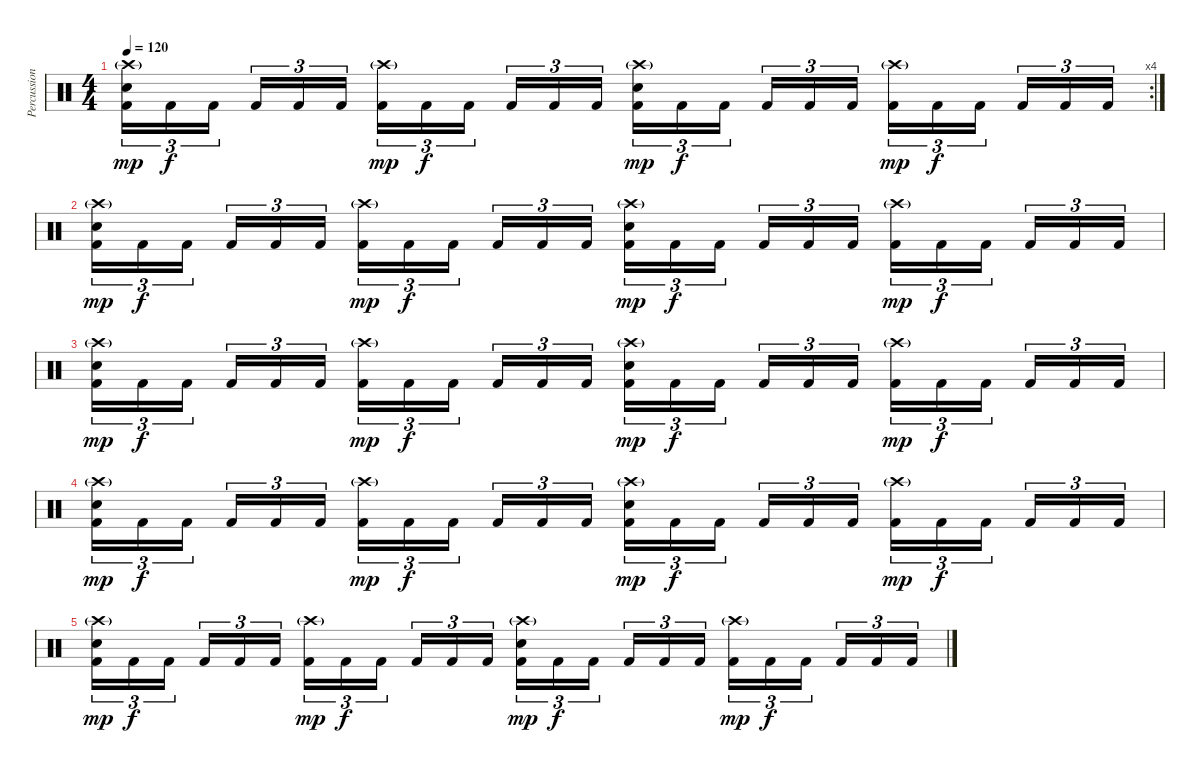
\track ("Percussion" "Percussion") {instrument percussion}
\staff {score}
\articulation defaults
\rc 4
\ts (4 4)
\tempo 120
\clef neutral
\ks c
("Crash high (hit)"{g} "Snare (hit) 2" "Kick (hit) 2").16{tu (3 2) dy mp} "Kick (hit) 2".16{tu (3 2) dy f} "Kick (hit) 2".16{tu (3 2) beam splitsecondary} "Kick (hit) 2".16{tu (3 2)} "Kick (hit) 2".16{tu (3 2)} "Kick (hit) 2".16{tu (3 2)} ("Crash high (hit)"{g} "Kick (hit) 2").16{tu (3 2) dy mp} "Kick (hit) 2".16{tu (3 2) dy f} "Kick (hit) 2".16{tu (3 2) beam splitsecondary} "Kick (hit) 2".16{tu (3 2)} "Kick (hit) 2".16{tu (3 2)} "Kick (hit) 2".16{tu (3 2)} ("Crash high (hit)"{g} "Snare (hit) 2" "Kick (hit) 2").16{tu (3 2) dy mp} "Kick (hit) 2".16{tu (3 2) dy f} "Kick (hit) 2".16{tu (3 2) beam splitsecondary} "Kick (hit) 2".16{tu (3 2)} "Kick (hit) 2".16{tu (3 2)} "Kick (hit) 2".16{tu (3 2)} ("Crash high (hit)"{g} "Kick (hit) 2").16{tu (3 2) dy mp} "Kick (hit) 2".16{tu (3 2) dy f} "Kick (hit) 2".16{tu (3 2) beam splitsecondary} "Kick (hit) 2".16{tu (3 2)} "Kick (hit) 2".16{tu (3 2)} "Kick (hit) 2".16{tu (3 2)} |
("Crash high (hit)"{g} "Snare (hit) 2" "Kick (hit) 2").16{tu (3 2) dy mp volume 0} "Kick (hit) 2".16{tu (3 2) dy f} "Kick (hit) 2".16{tu (3 2) beam splitsecondary} "Kick (hit) 2".16{tu (3 2)} "Kick (hit) 2".16{tu (3 2)} "Kick (hit) 2".16{tu (3 2)} ("Crash high (hit)"{g} "Kick (hit) 2").16{tu (3 2) dy mp} "Kick (hit) 2".16{tu (3 2) dy f} "Kick (hit) 2".16{tu (3 2) beam splitsecondary} "Kick (hit) 2".16{tu (3 2)} "Kick (hit) 2".16{tu (3 2)} "Kick (hit) 2".16{tu (3 2)} ("Crash high (hit)"{g} "Snare (hit) 2" "Kick (hit) 2").16{tu (3 2) dy mp} "Kick (hit) 2".16{tu (3 2) dy f} "Kick (hit) 2".16{tu (3 2) beam splitsecondary} "Kick (hit) 2".16{tu (3 2)} "Kick (hit) 2".16{tu (3 2)} "Kick (hit) 2".16{tu (3 2)} ("Crash high (hit)"{g} "Kick (hit) 2").16{tu (3 2) dy mp} "Kick (hit) 2".16{tu (3 2) dy f} "Kick (hit) 2".16{tu (3 2) beam splitsecondary} "Kick (hit) 2".16{tu (3 2)} "Kick (hit) 2".16{tu (3 2)} "Kick (hit) 2".16{tu (3 2)} |
("Crash high (hit)"{g} "Snare (hit) 2" "Kick (hit) 2").16{tu (3 2) dy mp} "Kick (hit) 2".16{tu (3 2) dy f} "Kick (hit) 2".16{tu (3 2) beam splitsecondary} "Kick (hit) 2".16{tu (3 2)} "Kick (hit) 2".16{tu (3 2)} "Kick (hit) 2".16{tu (3 2)} ("Crash high (hit)"{g} "Kick (hit) 2").16{tu (3 2) dy mp} "Kick (hit) 2".16{tu (3 2) dy f} "Kick (hit) 2".16{tu (3 2) beam splitsecondary} "Kick (hit) 2".16{tu (3 2)} "Kick (hit) 2".16{tu (3 2)} "Kick (hit) 2".16{tu (3 2)} ("Crash high (hit)"{g} "Snare (hit) 2" "Kick (hit) 2").16{tu (3 2) dy mp} "Kick (hit) 2".16{tu (3 2) dy f} "Kick (hit) 2".16{tu (3 2) beam splitsecondary} "Kick (hit) 2".16{tu (3 2)} "Kick (hit) 2".16{tu (3 2)} "Kick (hit) 2".16{tu (3 2)} ("Crash high (hit)"{g} "Kick (hit) 2").16{tu (3 2) dy mp} "Kick (hit) 2".16{tu (3 2) dy f} "Kick (hit) 2".16{tu (3 2) beam splitsecondary} "Kick (hit) 2".16{tu (3 2)} "Kick (hit) 2".16{tu (3 2)} "Kick (hit) 2".16{tu (3 2)} |
("Crash high (hit)"{g} "Snare (hit) 2" "Kick (hit) 2").16{tu (3 2) dy mp} "Kick (hit) 2".16{tu (3 2) dy f} "Kick (hit) 2".16{tu (3 2) beam splitsecondary} "Kick (hit) 2".16{tu (3 2)} "Kick (hit) 2".16{tu (3 2)} "Kick (hit) 2".16{tu (3 2)} ("Crash high (hit)"{g} "Kick (hit) 2").16{tu (3 2) dy mp} "Kick (hit) 2".16{tu (3 2) dy f} "Kick (hit) 2".16{tu (3 2) beam splitsecondary} "Kick (hit) 2".16{tu (3 2)} "Kick (hit) 2".16{tu (3 2)} "Kick (hit) 2".16{tu (3 2)} ("Crash high (hit)"{g} "Snare (hit) 2" "Kick (hit) 2").16{tu (3 2) dy mp} "Kick (hit) 2".16{tu (3 2) dy f} "Kick (hit) 2".16{tu (3 2) beam splitsecondary} "Kick (hit) 2".16{tu (3 2)} "Kick (hit) 2".16{tu (3 2)} "Kick (hit) 2".16{tu (3 2)} ("Crash high (hit)"{g} "Kick (hit) 2").16{tu (3 2) dy mp} "Kick (hit) 2".16{tu (3 2) dy f} "Kick (hit) 2".16{tu (3 2) beam splitsecondary} "Kick (hit) 2".16{tu (3 2)} "Kick (hit) 2".16{tu (3 2)} "Kick (hit) 2".16{tu (3 2)} |
("Crash high (hit)"{g} "Snare (hit) 2" "Kick (hit) 2").16{tu (3 2) dy mp} "Kick (hit) 2".16{tu (3 2) dy f} "Kick (hit) 2".16{tu (3 2) beam splitsecondary} "Kick (hit) 2".16{tu (3 2)} "Kick (hit) 2".16{tu (3 2)} "Kick (hit) 2".16{tu (3 2)} ("Crash high (hit)"{g} "Kick (hit) 2").16{tu (3 2) dy mp} "Kick (hit) 2".16{tu (3 2) dy f} "Kick (hit) 2".16{tu (3 2) beam splitsecondary} "Kick (hit) 2".16{tu (3 2)} "Kick (hit) 2".16{tu (3 2)} "Kick (hit) 2".16{tu (3 2)} ("Crash high (hit)"{g} "Snare (hit) 2" "Kick (hit) 2").16{tu (3 2) dy mp} "Kick (hit) 2".16{tu (3 2) dy f} "Kick (hit) 2".16{tu (3 2) beam splitsecondary} "Kick (hit) 2".16{tu (3 2)} "Kick (hit) 2".16{tu (3 2)} "Kick (hit) 2".16{tu (3 2)} ("Crash high (hit)"{g} "Kick (hit) 2").16{tu (3 2) dy mp} "Kick (hit) 2".16{tu (3 2) dy f} "Kick (hit) 2".16{tu (3 2) beam splitsecondary} "Kick (hit) 2".16{tu (3 2)} "Kick (hit) 2".16{tu (3 2)} "Kick (hit) 2".16{tu (3 2)}
